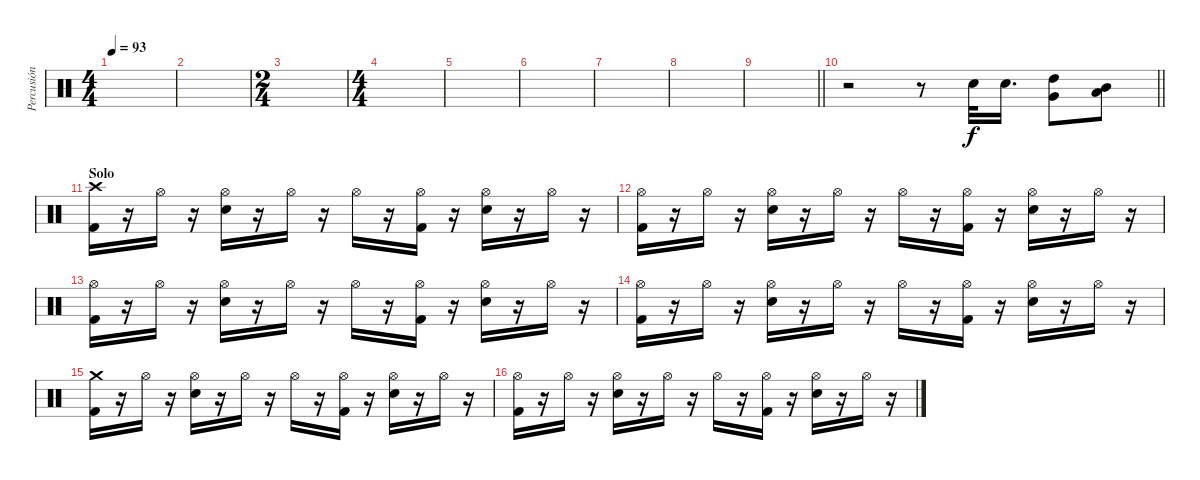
\track ("Percusión" "Percusión") {instrument percussion}
\staff {score}
\articulation defaults
\ts (4 4)
\tempo 93
\clef neutral
\ks c
|
|
\ts (2 4)
|
\ts (4 4)
|
|
|
|
|
\barLineRight lightlight
|
\barLineRight lightlight
r.2 r.8 "Electric Snare (hit)".32 "Electric Snare (hit)".16{d} ("High Tom (hit)" "Very Low Tom (hit)").8 ("Mid Tom (hit)" "Low Floor Tom (hit)").8 |
\section ("" "Solo")
("Kick (hit) 2" "Crash high (hit)").16 r.16 "Hi-Hat (open)".16 r.16 ("Hi-Hat (open)" "Electric Snare (hit)").16 r.16 "Hi-Hat (open)".16 r.16 "Hi-Hat (open)".16 r.16 ("Hi-Hat (open)" "Kick (hit) 2").16 r.16 ("Hi-Hat (open)" "Electric Snare (hit)").16 r.16 "Hi-Hat (open)".16 r.16 |
("Kick (hit) 2" "Hi-Hat (open)").16 r.16 "Hi-Hat (open)".16 r.16 ("Hi-Hat (open)" "Electric Snare (hit)").16 r.16 "Hi-Hat (open)".16 r.16 "Hi-Hat (open)".16 r.16 ("Hi-Hat (open)" "Kick (hit) 2").16 r.16 ("Hi-Hat (open)" "Electric Snare (hit)").16 r.16 "Hi-Hat (open)".16 r.16 |
("Kick (hit) 2" "Hi-Hat (open)").16 r.16 "Hi-Hat (open)".16 r.16 ("Hi-Hat (open)" "Electric Snare (hit)").16 r.16 "Hi-Hat (open)".16 r.16 "Hi-Hat (open)".16 r.16 ("Hi-Hat (open)" "Kick (hit) 2").16 r.16 ("Hi-Hat (open)" "Electric Snare (hit)").16 r.16 "Hi-Hat (open)".16 r.16 |
("Kick (hit) 2" "Hi-Hat (open)").16 r.16 "Hi-Hat (open)".16 r.16 ("Hi-Hat (open)" "Electric Snare (hit)").16 r.16 "Hi-Hat (open)".16 r.16 "Hi-Hat (open)".16 r.16 ("Hi-Hat (open)" "Kick (hit) 2").16 r.16 ("Hi-Hat (open)" "Electric Snare (hit)").16 r.16 "Hi-Hat (open)".16 r.16 |
("Kick (hit) 2" "Crash medium (hit)").16 r.16 "Hi-Hat (open)".16 r.16 ("Hi-Hat (open)" "Electric Snare (hit)").16 r.16 "Hi-Hat (open)".16 r.16 "Hi-Hat (open)".16 r.16 ("Hi-Hat (open)" "Kick (hit) 2").16 r.16 ("Hi-Hat (open)" "Electric Snare (hit)").16 r.16 "Hi-Hat (open)".16 r.16 |
("Kick (hit) 2" "Hi-Hat (open)").16 r.16 "Hi-Hat (open)".16 r.16 ("Hi-Hat (open)" "Electric Snare (hit)").16 r.16 "Hi-Hat (open)".16 r.16 "Hi-Hat (open)".16 r.16 ("Hi-Hat (open)" "Kick (hit) 2").16 r.16 ("Hi-Hat (open)" "Electric Snare (hit)").16 r.16 "Hi-Hat (open)".16 r.16
